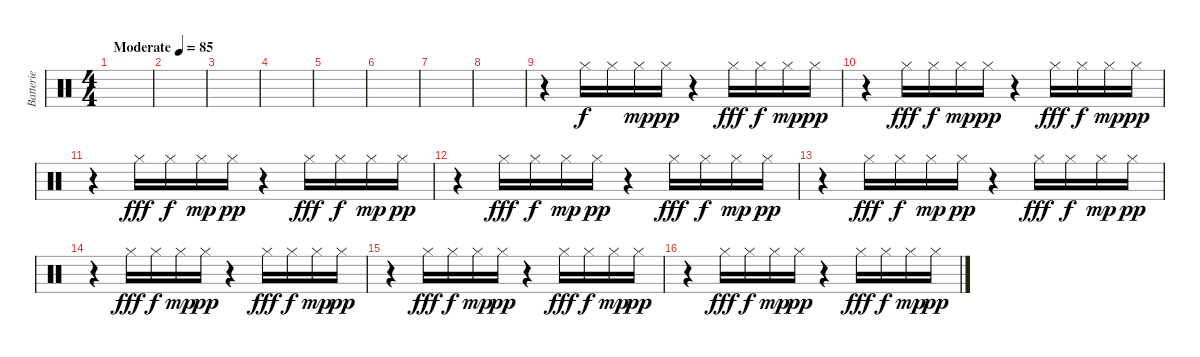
\track ("Batterie" "Batterie") {instrument percussion}
\staff {score}
\articulation defaults
\ts (4 4)
\tempo (85 "Moderate")
\clef neutral
\ks c
|
|
|
|
|
|
|
|
r.4 "Hi-Hat (closed)".16 "Hi-Hat (closed)".16{dy f} "Hi-Hat (closed)".16{dy mp} "Hi-Hat (closed)".16{dy pp} r.4 "Hi-Hat (closed)".16{dy fff} "Hi-Hat (closed)".16{dy f} "Hi-Hat (closed)".16{dy mp} "Hi-Hat (closed)".16{dy pp} |
r.4 "Hi-Hat (closed)".16{dy fff} "Hi-Hat (closed)".16{dy f} "Hi-Hat (closed)".16{dy mp} "Hi-Hat (closed)".16{dy pp} r.4 "Hi-Hat (closed)".16{dy fff} "Hi-Hat (closed)".16{dy f} "Hi-Hat (closed)".16{dy mp} "Hi-Hat (closed)".16{dy pp} |
r.4 "Hi-Hat (closed)".16{dy fff} "Hi-Hat (closed)".16{dy f} "Hi-Hat (closed)".16{dy mp} "Hi-Hat (closed)".16{dy pp} r.4 "Hi-Hat (closed)".16{dy fff} "Hi-Hat (closed)".16{dy f} "Hi-Hat (closed)".16{dy mp} "Hi-Hat (closed)".16{dy pp} |
r.4 "Hi-Hat (closed)".16{dy fff} "Hi-Hat (closed)".16{dy f} "Hi-Hat (closed)".16{dy mp} "Hi-Hat (closed)".16{dy pp} r.4 "Hi-Hat (closed)".16{dy fff} "Hi-Hat (closed)".16{dy f} "Hi-Hat (closed)".16{dy mp} "Hi-Hat (closed)".16{dy pp} |
r.4 "Hi-Hat (closed)".16{dy fff} "Hi-Hat (closed)".16{dy f} "Hi-Hat (closed)".16{dy mp} "Hi-Hat (closed)".16{dy pp} r.4 "Hi-Hat (closed)".16{dy fff} "Hi-Hat (closed)".16{dy f} "Hi-Hat (closed)".16{dy mp} "Hi-Hat (closed)".16{dy pp} |
r.4 "Hi-Hat (closed)".16{dy fff} "Hi-Hat (closed)".16{dy f} "Hi-Hat (closed)".16{dy mp} "Hi-Hat (closed)".16{dy pp} r.4 "Hi-Hat (closed)".16{dy fff} "Hi-Hat (closed)".16{dy f} "Hi-Hat (closed)".16{dy mp} "Hi-Hat (closed)".16{dy pp} |
r.4 "Hi-Hat (closed)".16{dy fff} "Hi-Hat (closed)".16{dy f} "Hi-Hat (closed)".16{dy mp} "Hi-Hat (closed)".16{dy pp} r.4 "Hi-Hat (closed)".16{dy fff} "Hi-Hat (closed)".16{dy f} "Hi-Hat (closed)".16{dy mp} "Hi-Hat (closed)".16{dy pp} |
r.4 "Hi-Hat (closed)".16{dy fff} "Hi-Hat (closed)".16{dy f} "Hi-Hat (closed)".16{dy mp} "Hi-Hat (closed)".16{dy pp} r.4 "Hi-Hat (closed)".16{dy fff} "Hi-Hat (closed)".16{dy f} "Hi-Hat (closed)".16{dy mp} "Hi-Hat (closed)".16{dy pp}
